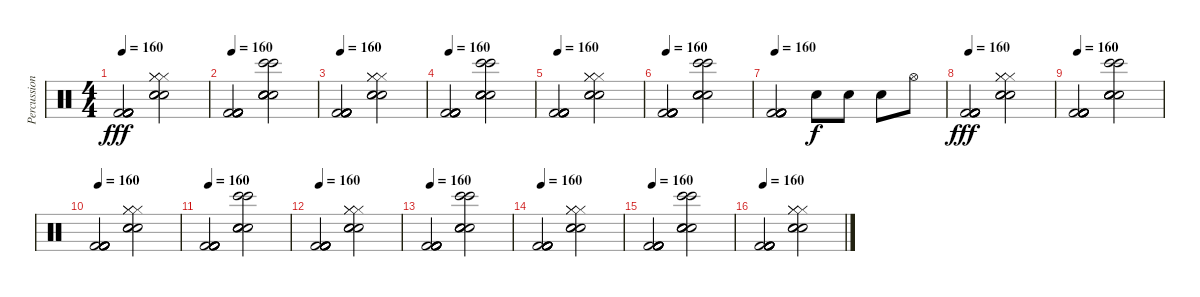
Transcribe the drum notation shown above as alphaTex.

\track ("Percussion" "Percussion") {instrument percussion}
\staff {score}
\articulation defaults
\ts (4 4)
\tempo 160
\clef neutral
\ks c
("Kick (hit) 2" "Kick (hit) 2" "Kick (hit) 2" "Kick (hit) 2" "Kick (hit) 2" "Kick (hit) 2").2{dy fff} ("Snare (hit) 2" "Snare (hit) 2" "Snare (hit) 2" "Hi-Hat (closed)" "Hi-Hat (closed)" "Hi-Hat (closed)").2 |
\tempo 160
("Kick (hit) 2" "Kick (hit) 2" "Kick (hit) 2" "Kick (hit) 2" "Kick (hit) 2" "Kick (hit) 2").2 ("Hand Clap (hit)" "Hand Clap (hit)" "Electric Snare (hit)" "Hand Clap (hit)" "Bongo High (hit)" "Bongo High (hit)").2 |
\tempo 160
("Kick (hit) 2" "Kick (hit) 2" "Kick (hit) 2" "Kick (hit) 2" "Kick (hit) 2" "Kick (hit) 2").2 ("Snare (hit) 2" "Snare (hit) 2" "Snare (hit) 2" "Hi-Hat (closed)" "Hi-Hat (closed)" "Hi-Hat (closed)").2 |
\tempo 160
("Kick (hit) 2" "Kick (hit) 2" "Kick (hit) 2" "Kick (hit) 2" "Kick (hit) 2" "Kick (hit) 2").2 ("Hand Clap (hit)" "Hand Clap (hit)" "Electric Snare (hit)" "Hand Clap (hit)" "Bongo High (hit)" "Bongo High (hit)").2 |
\tempo 160
("Kick (hit) 2" "Kick (hit) 2" "Kick (hit) 2" "Kick (hit) 2" "Kick (hit) 2" "Kick (hit) 2").2 ("Snare (hit) 2" "Snare (hit) 2" "Snare (hit) 2" "Hi-Hat (closed)" "Hi-Hat (closed)" "Hi-Hat (closed)").2 |
\tempo 160
("Kick (hit) 2" "Kick (hit) 2" "Kick (hit) 2" "Kick (hit) 2" "Kick (hit) 2" "Kick (hit) 2").2 ("Hand Clap (hit)" "Hand Clap (hit)" "Electric Snare (hit)" "Hand Clap (hit)" "Bongo High (hit)" "Bongo High (hit)").2 |
\tempo 160
("Kick (hit) 2" "Kick (hit) 2" "Kick (hit) 2" "Kick (hit) 2" "Kick (hit) 2" "Kick (hit) 2").2 "Snare (hit) 2".8{dy f} "Snare (hit) 2".8 "Snare (hit) 2".8 "Hi-Hat (open)".8 |
\tempo 160
("Kick (hit) 2" "Kick (hit) 2" "Kick (hit) 2" "Kick (hit) 2" "Kick (hit) 2" "Kick (hit) 2").2{dy fff} ("Snare (hit) 2" "Snare (hit) 2" "Snare (hit) 2" "Hi-Hat (closed)" "Hi-Hat (closed)" "Hi-Hat (closed)").2 |
\tempo 160
("Kick (hit) 2" "Kick (hit) 2" "Kick (hit) 2" "Kick (hit) 2" "Kick (hit) 2" "Kick (hit) 2").2 ("Hand Clap (hit)" "Hand Clap (hit)" "Electric Snare (hit)" "Hand Clap (hit)" "Bongo High (hit)" "Bongo High (hit)").2 |
\tempo 160
("Kick (hit) 2" "Kick (hit) 2" "Kick (hit) 2" "Kick (hit) 2" "Kick (hit) 2" "Kick (hit) 2").2 ("Snare (hit) 2" "Snare (hit) 2" "Snare (hit) 2" "Hi-Hat (closed)" "Hi-Hat (closed)" "Hi-Hat (closed)").2 |
\tempo 160
("Kick (hit) 2" "Kick (hit) 2" "Kick (hit) 2" "Kick (hit) 2" "Kick (hit) 2" "Kick (hit) 2").2 ("Hand Clap (hit)" "Hand Clap (hit)" "Electric Snare (hit)" "Hand Clap (hit)" "Bongo High (hit)" "Bongo High (hit)").2 |
\tempo 160
("Kick (hit) 2" "Kick (hit) 2" "Kick (hit) 2" "Kick (hit) 2" "Kick (hit) 2" "Kick (hit) 2").2 ("Snare (hit) 2" "Snare (hit) 2" "Snare (hit) 2" "Hi-Hat (closed)" "Hi-Hat (closed)" "Hi-Hat (closed)").2 |
\tempo 160
("Kick (hit) 2" "Kick (hit) 2" "Kick (hit) 2" "Kick (hit) 2" "Kick (hit) 2" "Kick (hit) 2").2 ("Hand Clap (hit)" "Hand Clap (hit)" "Electric Snare (hit)" "Hand Clap (hit)" "Bongo High (hit)" "Bongo High (hit)").2 |
\tempo 160
("Kick (hit) 2" "Kick (hit) 2" "Kick (hit) 2" "Kick (hit) 2" "Kick (hit) 2" "Kick (hit) 2").2 ("Snare (hit) 2" "Snare (hit) 2" "Snare (hit) 2" "Hi-Hat (closed)" "Hi-Hat (closed)" "Hi-Hat (closed)").2 |
\tempo 160
("Kick (hit) 2" "Kick (hit) 2" "Kick (hit) 2" "Kick (hit) 2" "Kick (hit) 2" "Kick (hit) 2").2 ("Hand Clap (hit)" "Hand Clap (hit)" "Electric Snare (hit)" "Hand Clap (hit)" "Bongo High (hit)" "Bongo High (hit)").2 |
\tempo 160
("Kick (hit) 2" "Kick (hit) 2" "Kick (hit) 2" "Kick (hit) 2" "Kick (hit) 2" "Kick (hit) 2").2 ("Snare (hit) 2" "Snare (hit) 2" "Snare (hit) 2" "Hi-Hat (closed)" "Hi-Hat (closed)" "Hi-Hat (closed)").2
